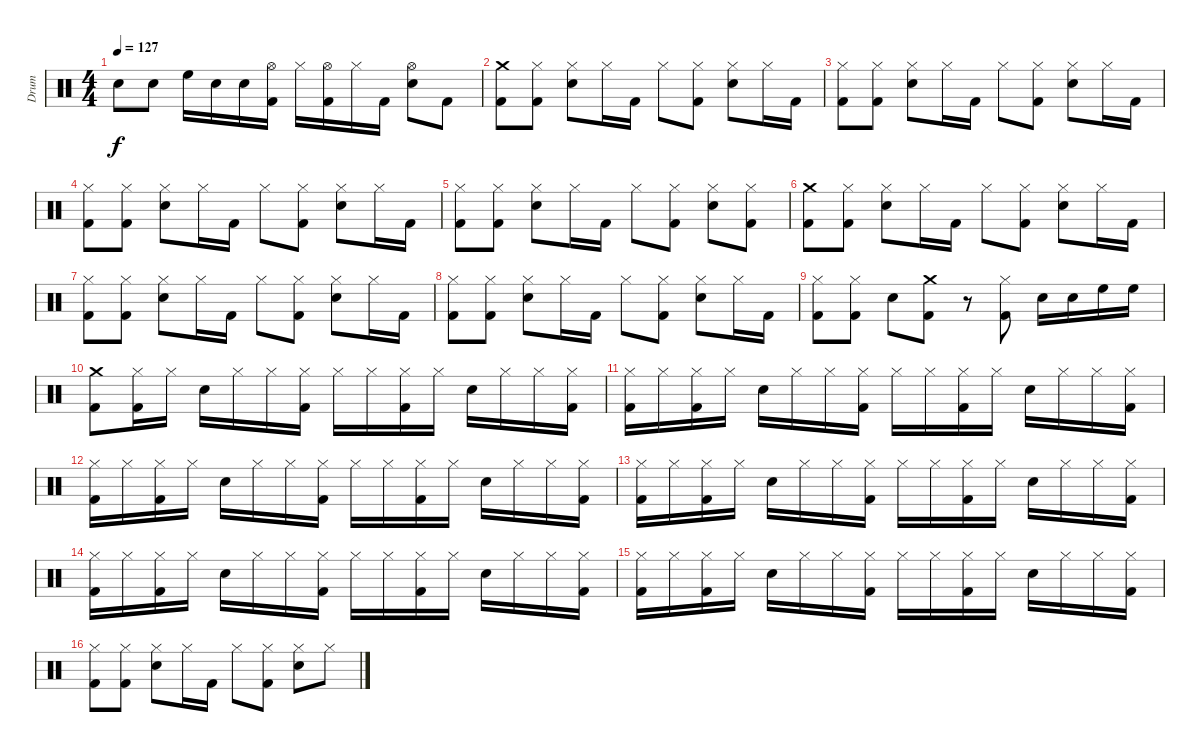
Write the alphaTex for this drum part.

\track ("Drum" "Drum") {instrument percussion}
\staff {score}
\articulation defaults
\ts (4 4)
\tempo 127
\clef neutral
\ks c "Snare (hit) 2".8{dy f} "Snare (hit) 2".8 "High Floor Tom (hit)".16 "Snare (hit) 2".16 "Snare (hit) 2".16
("Hi-Hat (open)" "Kick (hit) 2").16 "Hi-Hat (closed)".16 ("Hi-Hat (open)" "Kick (hit) 2").16 "Hi-Hat (closed)".16 "Kick (hit) 2".16 ("Hi-Hat (open)" "Snare (hit) 2").8 "Kick (hit) 2".8 |
("Crash medium (hit)" "Kick (hit) 2").8 ("Hi-Hat (closed)" "Kick (hit) 2").8 ("Hi-Hat (closed)" "Snare (hit) 2").8 "Hi-Hat (closed)".16 "Kick (hit) 2".16 "Hi-Hat (closed)".8 ("Hi-Hat (closed)" "Kick (hit) 2").8 ("Hi-Hat (closed)" "Snare (hit) 2").8 "Hi-Hat (closed)".16 "Kick (hit) 2".16 |
("Kick (hit) 2" "Hi-Hat (closed)").8 ("Hi-Hat (closed)" "Kick (hit) 2").8 ("Hi-Hat (closed)" "Snare (hit) 2").8 "Hi-Hat (closed)".16 "Kick (hit) 2".16 "Hi-Hat (closed)".8 ("Hi-Hat (closed)" "Kick (hit) 2").8 ("Hi-Hat (closed)" "Snare (hit) 2").8 "Hi-Hat (closed)".16 "Kick (hit) 2".16 |
("Kick (hit) 2" "Hi-Hat (closed)").8 ("Hi-Hat (closed)" "Kick (hit) 2").8 ("Hi-Hat (closed)" "Snare (hit) 2").8 "Hi-Hat (closed)".16 "Kick (hit) 2".16 "Hi-Hat (closed)".8 ("Hi-Hat (closed)" "Kick (hit) 2").8 ("Hi-Hat (closed)" "Snare (hit) 2").8 "Hi-Hat (closed)".16 "Kick (hit) 2".16 |
("Kick (hit) 2" "Hi-Hat (closed)").8 ("Hi-Hat (closed)" "Kick (hit) 2").8 ("Hi-Hat (closed)" "Snare (hit) 2").8 "Hi-Hat (closed)".16 "Kick (hit) 2".16 "Hi-Hat (closed)".8 ("Hi-Hat (closed)" "Kick (hit) 2").8 ("Hi-Hat (closed)" "Snare (hit) 2").8 ("Hi-Hat (closed)" "Kick (hit) 2").8 |
("Crash medium (hit)" "Kick (hit) 2").8 ("Hi-Hat (closed)" "Kick (hit) 2").8 ("Hi-Hat (closed)" "Snare (hit) 2").8 "Hi-Hat (closed)".16 "Kick (hit) 2".16 "Hi-Hat (closed)".8 ("Hi-Hat (closed)" "Kick (hit) 2").8 ("Hi-Hat (closed)" "Snare (hit) 2").8 "Hi-Hat (closed)".16 "Kick (hit) 2".16 |
("Kick (hit) 2" "Hi-Hat (closed)").8 ("Hi-Hat (closed)" "Kick (hit) 2").8 ("Hi-Hat (closed)" "Snare (hit) 2").8 "Hi-Hat (closed)".16 "Kick (hit) 2".16 "Hi-Hat (closed)".8 ("Hi-Hat (closed)" "Kick (hit) 2").8 ("Hi-Hat (closed)" "Snare (hit) 2").8 "Hi-Hat (closed)".16 "Kick (hit) 2".16 |
("Kick (hit) 2" "Hi-Hat (closed)").8 ("Hi-Hat (closed)" "Kick (hit) 2").8 ("Hi-Hat (closed)" "Snare (hit) 2").8 "Hi-Hat (closed)".16 "Kick (hit) 2".16 "Hi-Hat (closed)".8 ("Hi-Hat (closed)" "Kick (hit) 2").8 ("Hi-Hat (closed)" "Snare (hit) 2").8 "Hi-Hat (closed)".16 "Kick (hit) 2".16 |
("Hi-Hat (closed)" "Kick (hit) 2").8 ("Hi-Hat (closed)" "Kick (hit) 2").8 "Snare (hit) 2".8 ("Crash medium (hit)" "Kick (hit) 2").8 r.8 ("Hi-Hat (closed)" "Kick (hit) 2").8 "Snare (hit) 2".16 "Snare (hit) 2".16 "High Floor Tom (hit)".16 "High Floor Tom (hit)".16 |
("Crash medium (hit)" "Kick (hit) 2").8 ("Hi-Hat (closed)" "Kick (hit) 2").16 "Hi-Hat (closed)".16 "Snare (hit) 2".16 "Hi-Hat (closed)".16 "Hi-Hat (closed)".16 ("Hi-Hat (closed)" "Kick (hit) 2").16 "Hi-Hat (closed)".16 "Hi-Hat (closed)".16 ("Hi-Hat (closed)" "Kick (hit) 2").16 "Hi-Hat (closed)".16 "Snare (hit) 2".16 "Hi-Hat (closed)".16 "Hi-Hat (closed)".16 ("Hi-Hat (closed)" "Kick (hit) 2").16 |
("Hi-Hat (closed)" "Kick (hit) 2").16 "Hi-Hat (closed)".16 ("Hi-Hat (closed)" "Kick (hit) 2").16 "Hi-Hat (closed)".16 "Snare (hit) 2".16 "Hi-Hat (closed)".16 "Hi-Hat (closed)".16 ("Hi-Hat (closed)" "Kick (hit) 2").16 "Hi-Hat (closed)".16 "Hi-Hat (closed)".16 ("Hi-Hat (closed)" "Kick (hit) 2").16 "Hi-Hat (closed)".16 "Snare (hit) 2".16 "Hi-Hat (closed)".16 "Hi-Hat (closed)".16 ("Hi-Hat (closed)" "Kick (hit) 2").16 |
("Hi-Hat (closed)" "Kick (hit) 2").16 "Hi-Hat (closed)".16 ("Hi-Hat (closed)" "Kick (hit) 2").16 "Hi-Hat (closed)".16 "Snare (hit) 2".16 "Hi-Hat (closed)".16 "Hi-Hat (closed)".16 ("Hi-Hat (closed)" "Kick (hit) 2").16 "Hi-Hat (closed)".16 "Hi-Hat (closed)".16 ("Hi-Hat (closed)" "Kick (hit) 2").16 "Hi-Hat (closed)".16 "Snare (hit) 2".16 "Hi-Hat (closed)".16 "Hi-Hat (closed)".16 ("Hi-Hat (closed)" "Kick (hit) 2").16 |
("Hi-Hat (closed)" "Kick (hit) 2").16 "Hi-Hat (closed)".16 ("Hi-Hat (closed)" "Kick (hit) 2").16 "Hi-Hat (closed)".16 "Snare (hit) 2".16 "Hi-Hat (closed)".16 "Hi-Hat (closed)".16 ("Hi-Hat (closed)" "Kick (hit) 2").16 "Hi-Hat (closed)".16 "Hi-Hat (closed)".16 ("Hi-Hat (closed)" "Kick (hit) 2").16 "Hi-Hat (closed)".16 "Snare (hit) 2".16 "Hi-Hat (closed)".16 "Hi-Hat (closed)".16 ("Hi-Hat (closed)" "Kick (hit) 2").16 |
("Hi-Hat (closed)" "Kick (hit) 2").16 "Hi-Hat (closed)".16 ("Hi-Hat (closed)" "Kick (hit) 2").16 "Hi-Hat (closed)".16 "Snare (hit) 2".16 "Hi-Hat (closed)".16 "Hi-Hat (closed)".16 ("Hi-Hat (closed)" "Kick (hit) 2").16 "Hi-Hat (closed)".16 "Hi-Hat (closed)".16 ("Hi-Hat (closed)" "Kick (hit) 2").16 "Hi-Hat (closed)".16 "Snare (hit) 2".16 "Hi-Hat (closed)".16 "Hi-Hat (closed)".16 ("Hi-Hat (closed)" "Kick (hit) 2").16 |
("Hi-Hat (closed)" "Kick (hit) 2").16 "Hi-Hat (closed)".16 ("Hi-Hat (closed)" "Kick (hit) 2").16 "Hi-Hat (closed)".16 "Snare (hit) 2".16 "Hi-Hat (closed)".16 "Hi-Hat (closed)".16 ("Hi-Hat (closed)" "Kick (hit) 2").16 "Hi-Hat (closed)".16 "Hi-Hat (closed)".16 ("Hi-Hat (closed)" "Kick (hit) 2").16 "Hi-Hat (closed)".16 "Snare (hit) 2".16 "Hi-Hat (closed)".16 "Hi-Hat (closed)".16 ("Hi-Hat (closed)" "Kick (hit) 2").16 |
("Hi-Hat (closed)" "Kick (hit) 2").8 ("Hi-Hat (closed)" "Kick (hit) 2").8 ("Hi-Hat (closed)" "Snare (hit) 2").8 "Hi-Hat (closed)".16 "Kick (hit) 2".16 "Hi-Hat (closed)".8 ("Hi-Hat (closed)" "Kick (hit) 2").8 ("Hi-Hat (closed)" "Snare (hit) 2").8 "Hi-Hat (closed)".8
